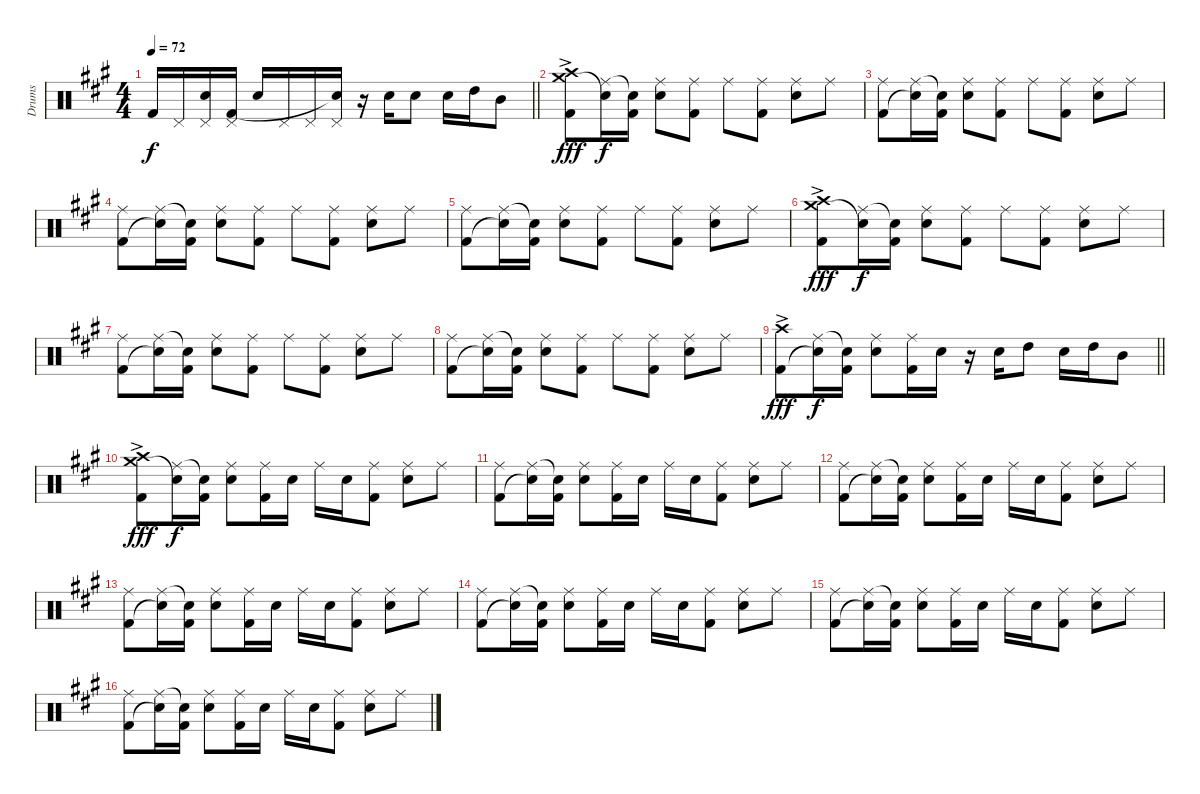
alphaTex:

\track ("Drums" "Drums") {instrument percussion}
\staff {score}
\articulation defaults
\ts (4 4)
\tempo 72
\clef neutral
\barLineRight lightlight
\ks a "Kick (hit) 2".16{dy f} "Pedal Hi-Hat (hit)".16
("Pedal Hi-Hat (hit)" "Snare (hit)"{t}).16 ("Pedal Hi-Hat (hit)" "Kick (hit) 2").16 "Snare (hit) 2".16 "Pedal Hi-Hat (hit)".16 "Pedal Hi-Hat (hit)".16 ("Pedal Hi-Hat (hit)" "Snare (hit)"{t}).16 r.16 "Snare (hit) 2".16 "Snare (hit) 2".8 "Snare (hit) 2".16 "High Tom (hit)".16 "Mid Tom (hit)".8 |
("Crash high (hit)"{ac} "Crash medium (hit)"{ac} "Kick (hit) 2"{ac}).8{dy fff} ("Ride (middle)" "Snare (hit)"{t}).16{dy f} ("Snare (hit)"{t} "Kick (hit) 2").16 ("Ride (middle)" "Snare (hit) 2").8 ("Ride (middle)" "Kick (hit) 2").8 "Ride (middle)".8 ("Ride (middle)" "Kick (hit) 2").8 ("Ride (middle)" "Snare (hit) 2").8 "Ride (middle)".8 |
("Ride (middle)" "Kick (hit) 2").8 ("Ride (middle)" "Snare (hit)"{t}).16 ("Snare (hit)"{t} "Kick (hit) 2").16 ("Ride (middle)" "Snare (hit) 2").8 ("Ride (middle)" "Kick (hit) 2").8 "Ride (middle)".8 ("Ride (middle)" "Kick (hit) 2").8 ("Ride (middle)" "Snare (hit) 2").8 "Ride (middle)".8 |
("Ride (middle)" "Kick (hit) 2").8 ("Ride (middle)" "Snare (hit)"{t}).16 ("Snare (hit)"{t} "Kick (hit) 2").16 ("Ride (middle)" "Snare (hit) 2").8 ("Ride (middle)" "Kick (hit) 2").8 "Ride (middle)".8 ("Ride (middle)" "Kick (hit) 2").8 ("Ride (middle)" "Snare (hit) 2").8 "Ride (middle)".8 |
("Ride (middle)" "Kick (hit) 2").8 ("Ride (middle)" "Snare (hit)"{t}).16 ("Snare (hit)"{t} "Kick (hit) 2").16 ("Ride (middle)" "Snare (hit) 2").8 ("Ride (middle)" "Kick (hit) 2").8 "Ride (middle)".8 ("Ride (middle)" "Kick (hit) 2").8 ("Ride (middle)" "Snare (hit) 2").8 "Ride (middle)".8 |
("Crash high (hit)"{ac} "Crash medium (hit)"{ac} "Kick (hit) 2"{ac}).8{dy fff} ("Ride (middle)" "Snare (hit)"{t}).16{dy f} ("Snare (hit)"{t} "Kick (hit) 2").16 ("Ride (middle)" "Snare (hit) 2").8 ("Ride (middle)" "Kick (hit) 2").8 "Ride (middle)".8 ("Ride (middle)" "Kick (hit) 2").8 ("Ride (middle)" "Snare (hit) 2").8 "Ride (middle)".8 |
("Ride (middle)" "Kick (hit) 2").8 ("Ride (middle)" "Snare (hit)"{t}).16 ("Snare (hit)"{t} "Kick (hit) 2").16 ("Ride (middle)" "Snare (hit) 2").8 ("Ride (middle)" "Kick (hit) 2").8 "Ride (middle)".8 ("Ride (middle)" "Kick (hit) 2").8 ("Ride (middle)" "Snare (hit) 2").8 "Ride (middle)".8 |
("Ride (middle)" "Kick (hit) 2").8 ("Ride (middle)" "Snare (hit)"{t}).16 ("Snare (hit)"{t} "Kick (hit) 2").16 ("Ride (middle)" "Snare (hit) 2").8 ("Ride (middle)" "Kick (hit) 2").8 "Ride (middle)".8 ("Ride (middle)" "Kick (hit) 2").8 ("Ride (middle)" "Snare (hit) 2").8 "Ride (middle)".8 |
\barLineRight lightlight
("Crash high (hit)"{ac} "Kick (hit) 2"{ac}).8{dy fff} ("Ride (middle)" "Snare (hit)"{t}).16{dy f} ("Snare (hit)"{t} "Kick (hit) 2").16 ("Ride (middle)" "Snare (hit) 2").8 ("Ride (middle)" "Kick (hit) 2").16 "Snare (hit) 2".16 r.16 "Snare (hit) 2".16 "High Tom (hit)".8 "Snare (hit) 2".16 "High Tom (hit)".16 "Mid Tom (hit)".8 |
("Crash high (hit)"{ac} "Crash medium (hit)"{ac} "Kick (hit) 2"{ac}).8{dy fff} ("Ride (middle)" "Snare (hit)"{t}).16{dy f} ("Snare (hit)"{t} "Kick (hit) 2").16 ("Ride (middle)" "Snare (hit) 2").8 ("Ride (middle)" "Kick (hit) 2").16 "Snare (hit) 2".16 "Ride (middle)".16 "Snare (hit) 2".16 ("Ride (middle)" "Kick (hit) 2").8 ("Ride (middle)" "Snare (hit) 2").8 "Ride (middle)".8 |
("Ride (middle)" "Kick (hit) 2").8 ("Ride (middle)" "Snare (hit)"{t}).16 ("Snare (hit)"{t} "Kick (hit) 2").16 ("Ride (middle)" "Snare (hit) 2").8 ("Ride (middle)" "Kick (hit) 2").16 "Snare (hit) 2".16 "Ride (middle)".16 "Snare (hit) 2".16 ("Ride (middle)" "Kick (hit) 2").8 ("Ride (middle)" "Snare (hit) 2").8 "Ride (middle)".8 |
("Ride (middle)" "Kick (hit) 2").8 ("Ride (middle)" "Snare (hit)"{t}).16 ("Snare (hit)"{t} "Kick (hit) 2").16 ("Ride (middle)" "Snare (hit) 2").8 ("Ride (middle)" "Kick (hit) 2").16 "Snare (hit) 2".16 "Ride (middle)".16 "Snare (hit) 2".16 ("Ride (middle)" "Kick (hit) 2").8 ("Ride (middle)" "Snare (hit) 2").8 "Ride (middle)".8 |
("Ride (middle)" "Kick (hit) 2").8 ("Ride (middle)" "Snare (hit)"{t}).16 ("Snare (hit)"{t} "Kick (hit) 2").16 ("Ride (middle)" "Snare (hit) 2").8 ("Ride (middle)" "Kick (hit) 2").16 "Snare (hit) 2".16 "Ride (middle)".16 "Snare (hit) 2".16 ("Ride (middle)" "Kick (hit) 2").8 ("Ride (middle)" "Snare (hit) 2").8 "Ride (middle)".8 |
("Ride (middle)" "Kick (hit) 2").8 ("Ride (middle)" "Snare (hit)"{t}).16 ("Snare (hit)"{t} "Kick (hit) 2").16 ("Ride (middle)" "Snare (hit) 2").8 ("Ride (middle)" "Kick (hit) 2").16 "Snare (hit) 2".16 "Ride (middle)".16 "Snare (hit) 2".16 ("Ride (middle)" "Kick (hit) 2").8 ("Ride (middle)" "Snare (hit) 2").8 "Ride (middle)".8 |
("Ride (middle)" "Kick (hit) 2").8 ("Ride (middle)" "Snare (hit)"{t}).16 ("Snare (hit)"{t} "Kick (hit) 2").16 ("Ride (middle)" "Snare (hit) 2").8 ("Ride (middle)" "Kick (hit) 2").16 "Snare (hit) 2".16 "Ride (middle)".16 "Snare (hit) 2".16 ("Ride (middle)" "Kick (hit) 2").8 ("Ride (middle)" "Snare (hit) 2").8 "Ride (middle)".8 |
("Ride (middle)" "Kick (hit) 2").8 ("Ride (middle)" "Snare (hit)"{t}).16 ("Snare (hit)"{t} "Kick (hit) 2").16 ("Ride (middle)" "Snare (hit) 2").8 ("Ride (middle)" "Kick (hit) 2").16 "Snare (hit) 2".16 "Ride (middle)".16 "Snare (hit) 2".16 ("Ride (middle)" "Kick (hit) 2").8 ("Ride (middle)" "Snare (hit) 2").8 "Ride (middle)".8
